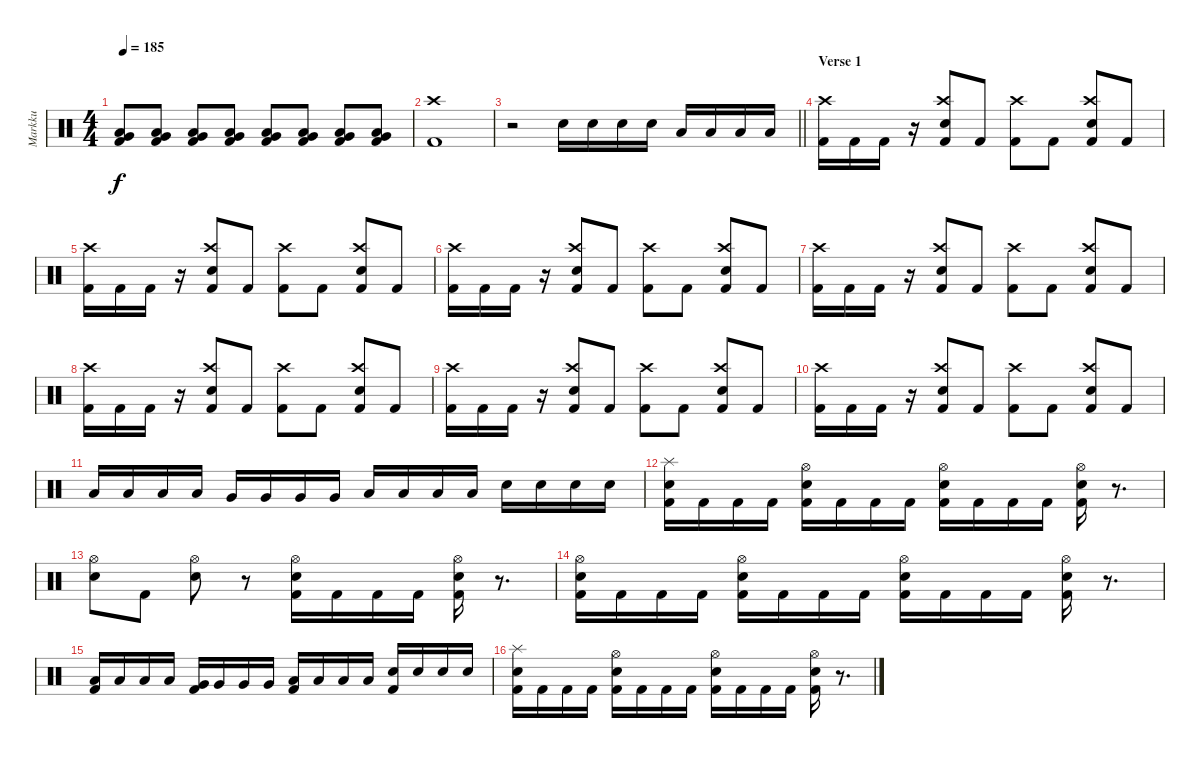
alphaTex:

\track ("Markku" "Markku") {instrument percussion}
\staff {score}
\articulation defaults
\ts (4 4)
\tempo 185
\clef neutral
\ks c
("Low Floor Tom (hit)" "Very Low Tom (hit)" "Kick (hit) 2").8{dy f} ("Low Floor Tom (hit)" "Very Low Tom (hit)" "Kick (hit) 2").8 ("Low Floor Tom (hit)" "Very Low Tom (hit)" "Kick (hit) 2").8 ("Low Floor Tom (hit)" "Very Low Tom (hit)" "Kick (hit) 2").8 ("Low Floor Tom (hit)" "Very Low Tom (hit)" "Kick (hit) 2").8 ("Low Floor Tom (hit)" "Very Low Tom (hit)" "Kick (hit) 2").8 ("Low Floor Tom (hit)" "Very Low Tom (hit)" "Kick (hit) 2").8 ("Low Floor Tom (hit)" "Very Low Tom (hit)" "Kick (hit) 2").8 |
("Kick (hit) 2" "Crash high (hit)").1 |
\barLineRight lightlight
r.2 "Snare (hit) 2".16 "Snare (hit) 2".16 "Snare (hit) 2".16 "Snare (hit) 2".16 "Low Tom (hit)".16 "Low Tom (hit)".16 "Low Tom (hit)".16 "Low Tom (hit)".16 |
\section ("" "Verse 1")
("Kick (hit) 2" "Crash high (hit)").16 "Kick (hit) 2".16 "Kick (hit) 2".16 r.16 ("Kick (hit) 2" "Snare (hit) 2" "Crash high (hit)").8 "Kick (hit) 2".8 ("Kick (hit) 2" "Crash high (hit)").8 "Kick (hit) 2".8 ("Kick (hit) 2" "Snare (hit) 2" "Crash high (hit)").8 "Kick (hit) 2".8 |
("Kick (hit) 2" "Crash high (hit)").16 "Kick (hit) 2".16 "Kick (hit) 2".16 r.16 ("Kick (hit) 2" "Snare (hit) 2" "Crash high (hit)").8 "Kick (hit) 2".8 ("Kick (hit) 2" "Crash high (hit)").8 "Kick (hit) 2".8 ("Kick (hit) 2" "Snare (hit) 2" "Crash high (hit)").8 "Kick (hit) 2".8 |
("Kick (hit) 2" "Crash high (hit)").16 "Kick (hit) 2".16 "Kick (hit) 2".16 r.16 ("Kick (hit) 2" "Snare (hit) 2" "Crash high (hit)").8 "Kick (hit) 2".8 ("Kick (hit) 2" "Crash high (hit)").8 "Kick (hit) 2".8 ("Kick (hit) 2" "Snare (hit) 2" "Crash high (hit)").8 "Kick (hit) 2".8 |
("Kick (hit) 2" "Crash high (hit)").16 "Kick (hit) 2".16 "Kick (hit) 2".16 r.16 ("Kick (hit) 2" "Snare (hit) 2" "Crash high (hit)").8 "Kick (hit) 2".8 ("Kick (hit) 2" "Crash high (hit)").8 "Kick (hit) 2".8 ("Kick (hit) 2" "Snare (hit) 2" "Crash high (hit)").8 "Kick (hit) 2".8 |
("Kick (hit) 2" "Crash high (hit)").16 "Kick (hit) 2".16 "Kick (hit) 2".16 r.16 ("Kick (hit) 2" "Snare (hit) 2" "Crash high (hit)").8 "Kick (hit) 2".8 ("Kick (hit) 2" "Crash high (hit)").8 "Kick (hit) 2".8 ("Kick (hit) 2" "Snare (hit) 2" "Crash high (hit)").8 "Kick (hit) 2".8 |
("Kick (hit) 2" "Crash high (hit)").16 "Kick (hit) 2".16 "Kick (hit) 2".16 r.16 ("Kick (hit) 2" "Snare (hit) 2" "Crash high (hit)").8 "Kick (hit) 2".8 ("Kick (hit) 2" "Crash high (hit)").8 "Kick (hit) 2".8 ("Kick (hit) 2" "Snare (hit) 2" "Crash high (hit)").8 "Kick (hit) 2".8 |
("Kick (hit) 2" "Crash high (hit)").16 "Kick (hit) 2".16 "Kick (hit) 2".16 r.16 ("Kick (hit) 2" "Snare (hit) 2" "Crash high (hit)").8 "Kick (hit) 2".8 ("Kick (hit) 2" "Crash high (hit)").8 "Kick (hit) 2".8 ("Kick (hit) 2" "Snare (hit) 2" "Crash high (hit)").8 "Kick (hit) 2".8 |
"Low Tom (hit)".16 "Low Tom (hit)".16 "Low Tom (hit)".16 "Low Tom (hit)".16 "Very Low Tom (hit)".16 "Very Low Tom (hit)".16 "Very Low Tom (hit)".16 "Very Low Tom (hit)".16 "Low Floor Tom (hit)".16 "Low Floor Tom (hit)".16 "Low Floor Tom (hit)".16 "Low Floor Tom (hit)".16 "Snare (hit) 2".16 "Snare (hit) 2".16 "Snare (hit) 2".16 "Snare (hit) 2".16 |
("Kick (hit) 2" "Snare (hit) 2" "Splash (hit)").16 "Kick (hit) 2".16 "Kick (hit) 2".16 "Kick (hit) 2".16 ("Kick (hit) 2" "Snare (hit) 2" "Hi-Hat (open)").16 "Kick (hit) 2".16 "Kick (hit) 2".16 "Kick (hit) 2".16 ("Kick (hit) 2" "Snare (hit) 2" "Hi-Hat (open)").16 "Kick (hit) 2".16 "Kick (hit) 2".16 "Kick (hit) 2".16 ("Kick (hit) 2" "Snare (hit) 2" "Hi-Hat (open)").16 r.8{d} |
("Snare (hit) 2" "Hi-Hat (open)").8 "Kick (hit) 2".8 ("Snare (hit) 2" "Hi-Hat (open)").8 r.8 ("Kick (hit) 2" "Snare (hit) 2" "Hi-Hat (open)").16 "Kick (hit) 2".16 "Kick (hit) 2".16 "Kick (hit) 2".16 ("Kick (hit) 2" "Snare (hit) 2" "Hi-Hat (open)").16 r.8{d} |
("Kick (hit) 2" "Snare (hit) 2" "Hi-Hat (open)").16 "Kick (hit) 2".16 "Kick (hit) 2".16 "Kick (hit) 2".16 ("Kick (hit) 2" "Snare (hit) 2" "Hi-Hat (open)").16 "Kick (hit) 2".16 "Kick (hit) 2".16 "Kick (hit) 2".16 ("Kick (hit) 2" "Snare (hit) 2" "Hi-Hat (open)").16 "Kick (hit) 2".16 "Kick (hit) 2".16 "Kick (hit) 2".16 ("Kick (hit) 2" "Snare (hit) 2" "Hi-Hat (open)").16 r.8{d} |
("Kick (hit) 2" "Low Tom (hit)").16 "Low Tom (hit)".16 "Low Tom (hit)".16 "Low Tom (hit)".16 ("Kick (hit) 2" "Very Low Tom (hit)").16 "Very Low Tom (hit)".16 "Very Low Tom (hit)".16 "Very Low Tom (hit)".16 ("Kick (hit) 2" "Low Floor Tom (hit)").16 "Low Floor Tom (hit)".16 "Low Floor Tom (hit)".16 "Low Floor Tom (hit)".16 ("Kick (hit) 2" "Snare (hit) 2").16 "Snare (hit) 2".16 "Snare (hit) 2".16 "Snare (hit) 2".16 |
("Kick (hit) 2" "Snare (hit) 2" "Splash (hit)").16 "Kick (hit) 2".16 "Kick (hit) 2".16 "Kick (hit) 2".16 ("Kick (hit) 2" "Snare (hit) 2" "Hi-Hat (open)").16 "Kick (hit) 2".16 "Kick (hit) 2".16 "Kick (hit) 2".16 ("Kick (hit) 2" "Snare (hit) 2" "Hi-Hat (open)").16 "Kick (hit) 2".16 "Kick (hit) 2".16 "Kick (hit) 2".16 ("Kick (hit) 2" "Snare (hit) 2" "Hi-Hat (open)").16 r.8{d}
